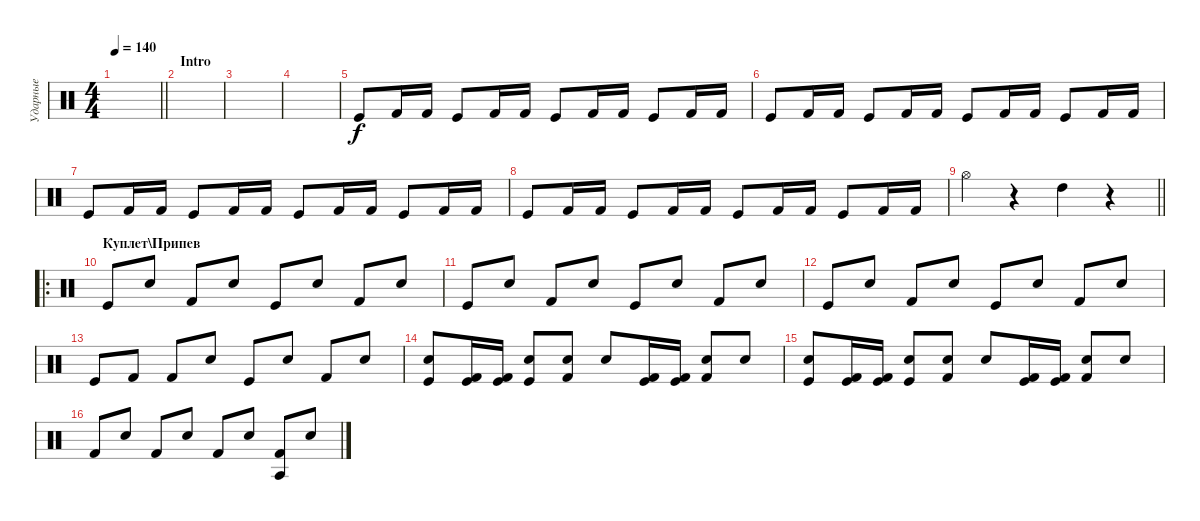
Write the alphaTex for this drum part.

\track ("Ударные" "Ударные") {instrument percussion}
\staff {score}
\articulation defaults
\ts (4 4)
\tempo 140
\clef neutral
\barLineRight lightlight
\ks c
|
\section ("" "Intro")
|
|
|
"Kick (hit)".8 "Kick (hit) 2".16 "Kick (hit) 2".16 "Kick (hit)".8 "Kick (hit) 2".16 "Kick (hit) 2".16 "Kick (hit)".8 "Kick (hit) 2".16 "Kick (hit) 2".16 "Kick (hit)".8 "Kick (hit) 2".16 "Kick (hit) 2".16 |
"Kick (hit)".8 "Kick (hit) 2".16 "Kick (hit) 2".16 "Kick (hit)".8 "Kick (hit) 2".16 "Kick (hit) 2".16 "Kick (hit)".8 "Kick (hit) 2".16 "Kick (hit) 2".16 "Kick (hit)".8 "Kick (hit) 2".16 "Kick (hit) 2".16 |
"Kick (hit)".8 "Kick (hit) 2".16 "Kick (hit) 2".16 "Kick (hit)".8 "Kick (hit) 2".16 "Kick (hit) 2".16 "Kick (hit)".8 "Kick (hit) 2".16 "Kick (hit) 2".16 "Kick (hit)".8 "Kick (hit) 2".16 "Kick (hit) 2".16 |
"Kick (hit)".8 "Kick (hit) 2".16 "Kick (hit) 2".16 "Kick (hit)".8 "Kick (hit) 2".16 "Kick (hit) 2".16 "Kick (hit)".8 "Kick (hit) 2".16 "Kick (hit) 2".16 "Kick (hit)".8 "Kick (hit) 2".16 "Kick (hit) 2".16 |
\barLineRight lightlight "Hi-Hat (open)".4
r.4 "High Tom (hit)".4 r.4 |
\ro
\section ("" "Куплет\\Припев")
"Kick (hit)".8 "Snare (hit) 2".8 "Kick (hit) 2".8 "Snare (hit) 2".8 "Kick (hit)".8 "Snare (hit) 2".8 "Kick (hit) 2".8 "Snare (hit) 2".8 |
"Kick (hit)".8 "Snare (hit) 2".8 "Kick (hit) 2".8 "Snare (hit) 2".8 "Kick (hit)".8 "Snare (hit) 2".8 "Kick (hit) 2".8 "Snare (hit) 2".8 |
"Kick (hit)".8 "Snare (hit) 2".8 "Kick (hit) 2".8 "Snare (hit) 2".8 "Kick (hit)".8 "Snare (hit) 2".8 "Kick (hit) 2".8 "Snare (hit) 2".8 |
"Kick (hit)".8 "Kick (hit) 2".8 "Kick (hit) 2".8 "Snare (hit) 2".8 "Kick (hit)".8 "Snare (hit) 2".8 "Kick (hit) 2".8 "Snare (hit) 2".8 |
("Snare (hit) 2" "Kick (hit)").8 ("Kick (hit) 2" "Kick (hit)").16 ("Kick (hit) 2" "Kick (hit)").16 ("Snare (hit) 2" "Kick (hit)").8 ("Kick (hit) 2" "Electric Snare (hit)").8 "Snare (hit) 2".8 ("Kick (hit) 2" "Kick (hit)").16 ("Kick (hit) 2" "Kick (hit)").16 ("Snare (hit) 2" "Kick (hit) 2").8 "Electric Snare (hit)".8 |
("Snare (hit) 2" "Kick (hit)").8 ("Kick (hit) 2" "Kick (hit)").16 ("Kick (hit) 2" "Kick (hit)").16 ("Snare (hit) 2" "Kick (hit)").8 ("Kick (hit) 2" "Electric Snare (hit)").8 "Snare (hit) 2".8 ("Kick (hit) 2" "Kick (hit)").16 ("Kick (hit) 2" "Kick (hit)").16 ("Snare (hit) 2" "Kick (hit) 2").8 "Electric Snare (hit)".8 |
"Kick (hit) 2".8 "Snare (hit) 2".8 "Kick (hit) 2".8 "Snare (hit) 2".8 "Kick (hit) 2".8 "Snare (hit) 2".8 ("Kick (hit) 2" "Agogo tow (hit)").8 "Snare (hit) 2".8
